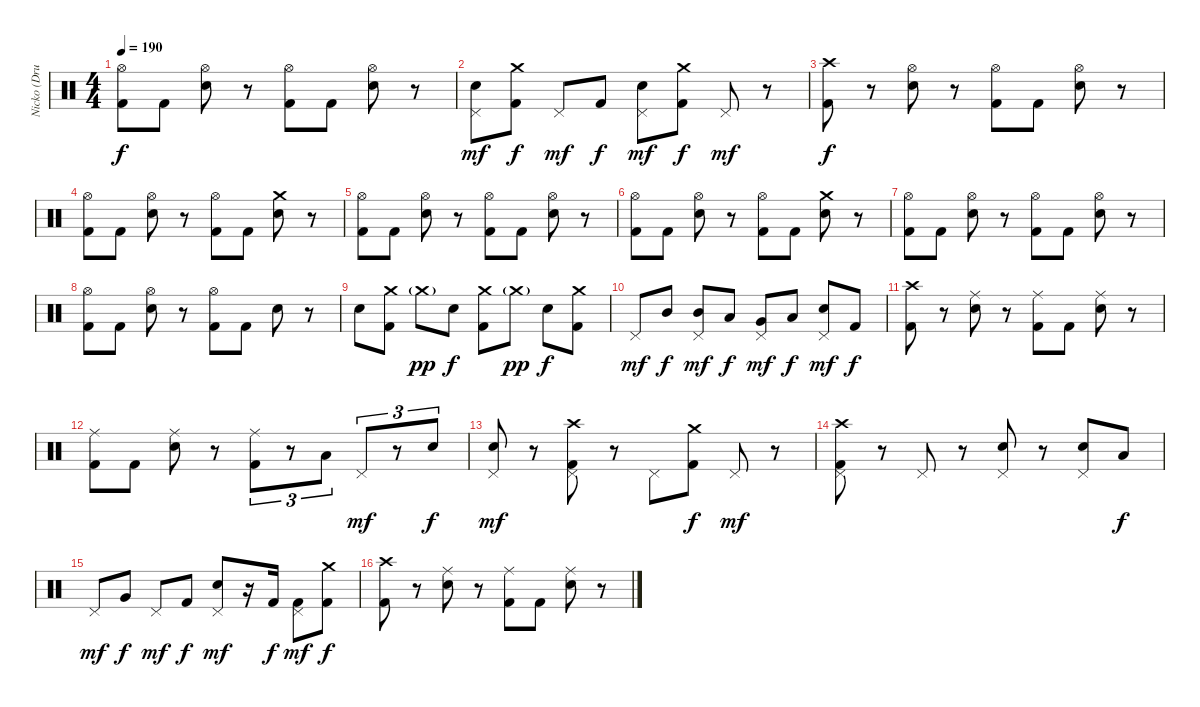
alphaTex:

\track ("Nicko (Drums)" "Nicko (Dru") {instrument percussion}
\staff {score}
\articulation defaults
\ts (4 4)
\tempo 190
\clef neutral
\ks c
("Hi-Hat (open)" "Kick (hit) 2").8{dy f} "Kick (hit) 2".8 ("Hi-Hat (open)" "Snare (hit) 2").8 r.8 ("Hi-Hat (open)" "Kick (hit) 2").8 "Kick (hit) 2".8 ("Hi-Hat (open)" "Snare (hit) 2").8 r.8 |
("Pedal Hi-Hat (hit)" "Snare (hit) 2").8{dy mf} ("Crash medium (hit)" "Kick (hit) 2").8{dy f} "Pedal Hi-Hat (hit)".8{dy mf} "Kick (hit) 2".8{dy f} ("Pedal Hi-Hat (hit)" "Snare (hit) 2").8{dy mf} ("Crash medium (hit)" "Kick (hit) 2").8{dy f} "Pedal Hi-Hat (hit)".8{dy mf} r.8 |
("Crash high (hit)" "Kick (hit) 2").8{dy f} r.8 ("Hi-Hat (open)" "Snare (hit) 2").8 r.8 ("Hi-Hat (open)" "Kick (hit) 2").8 "Kick (hit) 2".8 ("Hi-Hat (open)" "Snare (hit) 2").8 r.8 |
("Hi-Hat (open)" "Kick (hit) 2").8 "Kick (hit) 2".8 ("Hi-Hat (open)" "Snare (hit) 2").8 r.8 ("Hi-Hat (open)" "Kick (hit) 2").8 "Kick (hit) 2".8 ("Crash medium (hit)" "Snare (hit) 2").8 r.8 |
("Hi-Hat (open)" "Kick (hit) 2").8 "Kick (hit) 2".8 ("Hi-Hat (open)" "Snare (hit) 2").8 r.8 ("Hi-Hat (open)" "Kick (hit) 2").8 "Kick (hit) 2".8 ("Hi-Hat (open)" "Snare (hit) 2").8 r.8 |
("Hi-Hat (open)" "Kick (hit) 2").8 "Kick (hit) 2".8 ("Hi-Hat (open)" "Snare (hit) 2").8 r.8 ("Hi-Hat (open)" "Kick (hit) 2").8 "Kick (hit) 2".8 ("Crash medium (hit)" "Snare (hit) 2").8 r.8 |
("Hi-Hat (open)" "Kick (hit) 2").8 "Kick (hit) 2".8 ("Hi-Hat (open)" "Snare (hit) 2").8 r.8 ("Hi-Hat (open)" "Kick (hit) 2").8 "Kick (hit) 2".8 ("Hi-Hat (open)" "Snare (hit) 2").8 r.8 |
("Hi-Hat (open)" "Kick (hit) 2").8 "Kick (hit) 2".8 ("Hi-Hat (open)" "Snare (hit) 2").8 r.8 ("Hi-Hat (open)" "Kick (hit) 2").8 "Kick (hit) 2".8 "Snare (hit) 2".8 r.8 |
"Snare (hit) 2".8 ("Crash medium (hit)" "Kick (hit) 2").8 "Crash medium (hit)"{g}.8{dy pp} "Snare (hit) 2".8{dy f} ("Crash medium (hit)" "Kick (hit) 2").8 "Crash medium (hit)"{g}.8{dy pp} "Snare (hit) 2".8{dy f} ("Crash medium (hit)" "Kick (hit) 2").8 |
"Pedal Hi-Hat (hit)".8{dy mf} "Mid Tom (hit)".8{dy f} ("Pedal Hi-Hat (hit)" "Mid Tom (hit)").8{dy mf} "Low Tom (hit)".8{dy f} ("Pedal Hi-Hat (hit)" "Very Low Tom (hit)").8{dy mf} "Low Floor Tom (hit)".8{dy f} ("Pedal Hi-Hat (hit)" "Snare (hit) 2").8{dy mf} "Kick (hit) 2".8{dy f} |
("Crash high (hit)" "Kick (hit) 2").8 r.8 ("Ride (middle)" "Snare (hit) 2").8 r.8 ("Ride (middle)" "Kick (hit) 2").8 "Kick (hit) 2".8 ("Ride (middle)" "Snare (hit) 2").8 r.8 |
("Ride (middle)" "Kick (hit) 2").8 "Kick (hit) 2".8 ("Ride (middle)" "Snare (hit) 2").8 r.8 ("Ride (middle)" "Kick (hit) 2").8{tu (3 2)} r.8{tu (3 2)} "Low Tom (hit)".8{tu (3 2)} "Pedal Hi-Hat (hit)".8{tu (3 2) dy mf} r.8{tu (3 2)} "Snare (hit) 2".8{tu (3 2) dy f} |
("Pedal Hi-Hat (hit)" "Snare (hit) 2").8{dy mf} r.8 ("Crash high (hit)" "Pedal Hi-Hat (hit)" "Kick (hit) 2").8 r.8 "Pedal Hi-Hat (hit)".8 ("Crash medium (hit)" "Kick (hit) 2").8{dy f} "Pedal Hi-Hat (hit)".8{dy mf} r.8 |
("Crash high (hit)" "Pedal Hi-Hat (hit)" "Kick (hit) 2").8 r.8 "Pedal Hi-Hat (hit)".8 r.8 ("Pedal Hi-Hat (hit)" "Snare (hit) 2").8 r.8 ("Pedal Hi-Hat (hit)" "Snare (hit) 2").8 "Low Tom (hit)".8{dy f} |
"Pedal Hi-Hat (hit)".8{dy mf} "Very Low Tom (hit)".8{dy f} "Pedal Hi-Hat (hit)".8{dy mf} "Kick (hit) 2".8{dy f} ("Pedal Hi-Hat (hit)" "Snare (hit) 2").8{dy mf} r.16 "Kick (hit) 2".16{dy f} ("Pedal Hi-Hat (hit)" "Kick (hit) 2").8{dy mf} ("Crash medium (hit)" "Kick (hit) 2").8{dy f} |
("Crash high (hit)" "Kick (hit) 2").8 r.8 ("Ride (middle)" "Snare (hit) 2").8 r.8 ("Ride (middle)" "Kick (hit) 2").8 "Kick (hit) 2".8 ("Ride (middle)" "Snare (hit) 2").8 r.8
